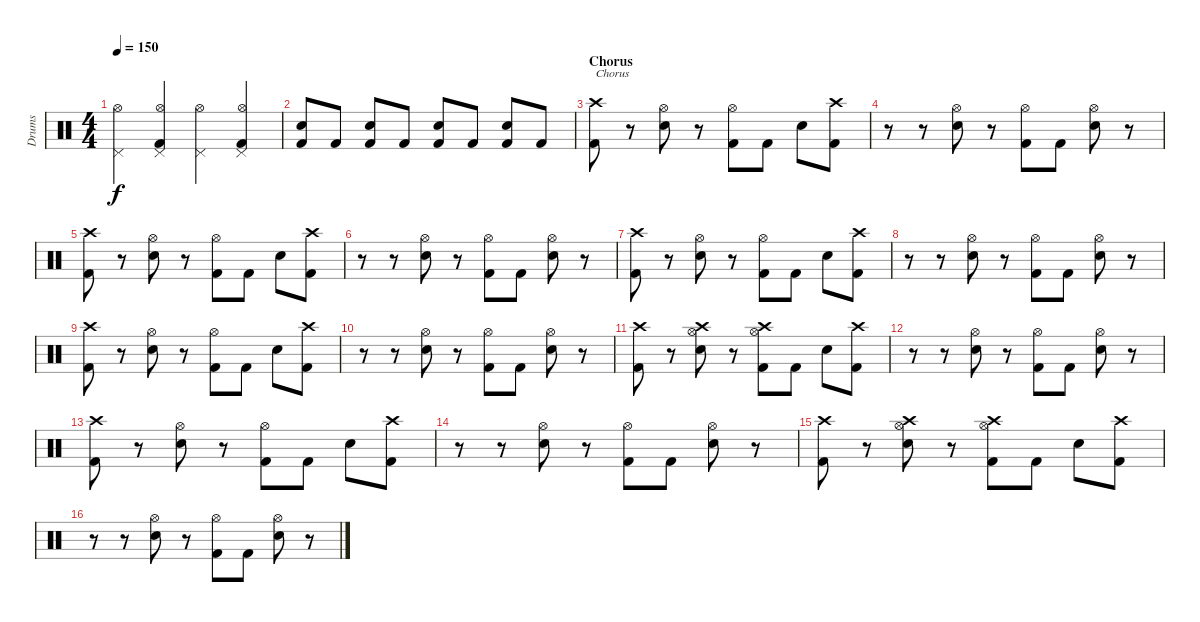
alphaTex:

\track ("Drums" "Drums") {instrument percussion}
\staff {score}
\articulation defaults
\ts (4 4)
\tempo 150
\clef neutral
\ks c
("Pedal Hi-Hat (hit)" "Hi-Hat (open)").4{dy f} ("Pedal Hi-Hat (hit)" "Hi-Hat (open)" "Kick (hit) 2").4 ("Pedal Hi-Hat (hit)" "Hi-Hat (open)").4 ("Pedal Hi-Hat (hit)" "Hi-Hat (open)" "Kick (hit) 2").4 |
("Electric Snare (hit)" "Kick (hit) 2").8 "Kick (hit) 2".8 ("Electric Snare (hit)" "Kick (hit) 2").8 "Kick (hit) 2".8 ("Electric Snare (hit)" "Kick (hit) 2").8 "Kick (hit) 2".8 ("Electric Snare (hit)" "Kick (hit) 2").8 "Kick (hit) 2".8 |
\section ("" "Chorus")
("Crash high (hit)" "Kick (hit) 2").8{txt "Chorus"} r.8 ("Hi-Hat (open)" "Electric Snare (hit)").8 r.8 ("Hi-Hat (open)" "Kick (hit) 2").8 "Kick (hit) 2".8 "Electric Snare (hit)".8 ("Crash high (hit)" "Kick (hit) 2").8 |
r.8 r.8 ("Hi-Hat (open)" "Electric Snare (hit)").8 r.8 ("Hi-Hat (open)" "Kick (hit) 2").8 "Kick (hit) 2".8 ("Hi-Hat (open)" "Electric Snare (hit)").8 r.8 |
("Crash high (hit)" "Kick (hit) 2").8 r.8 ("Hi-Hat (open)" "Electric Snare (hit)").8 r.8 ("Hi-Hat (open)" "Kick (hit) 2").8 "Kick (hit) 2".8 "Electric Snare (hit)".8 ("Crash high (hit)" "Kick (hit) 2").8 |
r.8 r.8 ("Hi-Hat (open)" "Electric Snare (hit)").8 r.8 ("Hi-Hat (open)" "Kick (hit) 2").8 "Kick (hit) 2".8 ("Hi-Hat (open)" "Electric Snare (hit)").8 r.8 |
("Crash high (hit)" "Kick (hit) 2").8 r.8 ("Hi-Hat (open)" "Electric Snare (hit)").8 r.8 ("Hi-Hat (open)" "Kick (hit) 2").8 "Kick (hit) 2".8 "Electric Snare (hit)".8 ("Crash high (hit)" "Kick (hit) 2").8 |
r.8 r.8 ("Hi-Hat (open)" "Electric Snare (hit)").8 r.8 ("Hi-Hat (open)" "Kick (hit) 2").8 "Kick (hit) 2".8 ("Hi-Hat (open)" "Electric Snare (hit)").8 r.8 |
("Crash high (hit)" "Kick (hit) 2").8 r.8 ("Hi-Hat (open)" "Electric Snare (hit)").8 r.8 ("Hi-Hat (open)" "Kick (hit) 2").8 "Kick (hit) 2".8 "Electric Snare (hit)".8 ("Crash high (hit)" "Kick (hit) 2").8 |
r.8 r.8 ("Hi-Hat (open)" "Electric Snare (hit)").8 r.8 ("Hi-Hat (open)" "Kick (hit) 2").8 "Kick (hit) 2".8 ("Hi-Hat (open)" "Electric Snare (hit)").8 r.8 |
("Crash high (hit)" "Kick (hit) 2").8 r.8 ("Crash high (hit)" "Hi-Hat (open)" "Electric Snare (hit)").8 r.8 ("Crash high (hit)" "Hi-Hat (open)" "Kick (hit) 2").8 "Kick (hit) 2".8 "Electric Snare (hit)".8 ("Crash high (hit)" "Kick (hit) 2").8 |
r.8 r.8 ("Hi-Hat (open)" "Electric Snare (hit)").8 r.8 ("Hi-Hat (open)" "Kick (hit) 2").8 "Kick (hit) 2".8 ("Hi-Hat (open)" "Electric Snare (hit)").8 r.8 |
("Crash high (hit)" "Kick (hit) 2").8 r.8 ("Hi-Hat (open)" "Electric Snare (hit)").8 r.8 ("Hi-Hat (open)" "Kick (hit) 2").8 "Kick (hit) 2".8 "Electric Snare (hit)".8 ("Crash high (hit)" "Kick (hit) 2").8 |
r.8 r.8 ("Hi-Hat (open)" "Electric Snare (hit)").8 r.8 ("Hi-Hat (open)" "Kick (hit) 2").8 "Kick (hit) 2".8 ("Hi-Hat (open)" "Electric Snare (hit)").8 r.8 |
("Crash high (hit)" "Kick (hit) 2").8 r.8 ("Crash high (hit)" "Hi-Hat (open)" "Electric Snare (hit)").8 r.8 ("Crash high (hit)" "Hi-Hat (open)" "Kick (hit) 2").8 "Kick (hit) 2".8 "Electric Snare (hit)".8 ("Crash high (hit)" "Kick (hit) 2").8 |
r.8 r.8 ("Hi-Hat (open)" "Electric Snare (hit)").8 r.8 ("Hi-Hat (open)" "Kick (hit) 2").8 "Kick (hit) 2".8 ("Hi-Hat (open)" "Electric Snare (hit)").8 r.8
